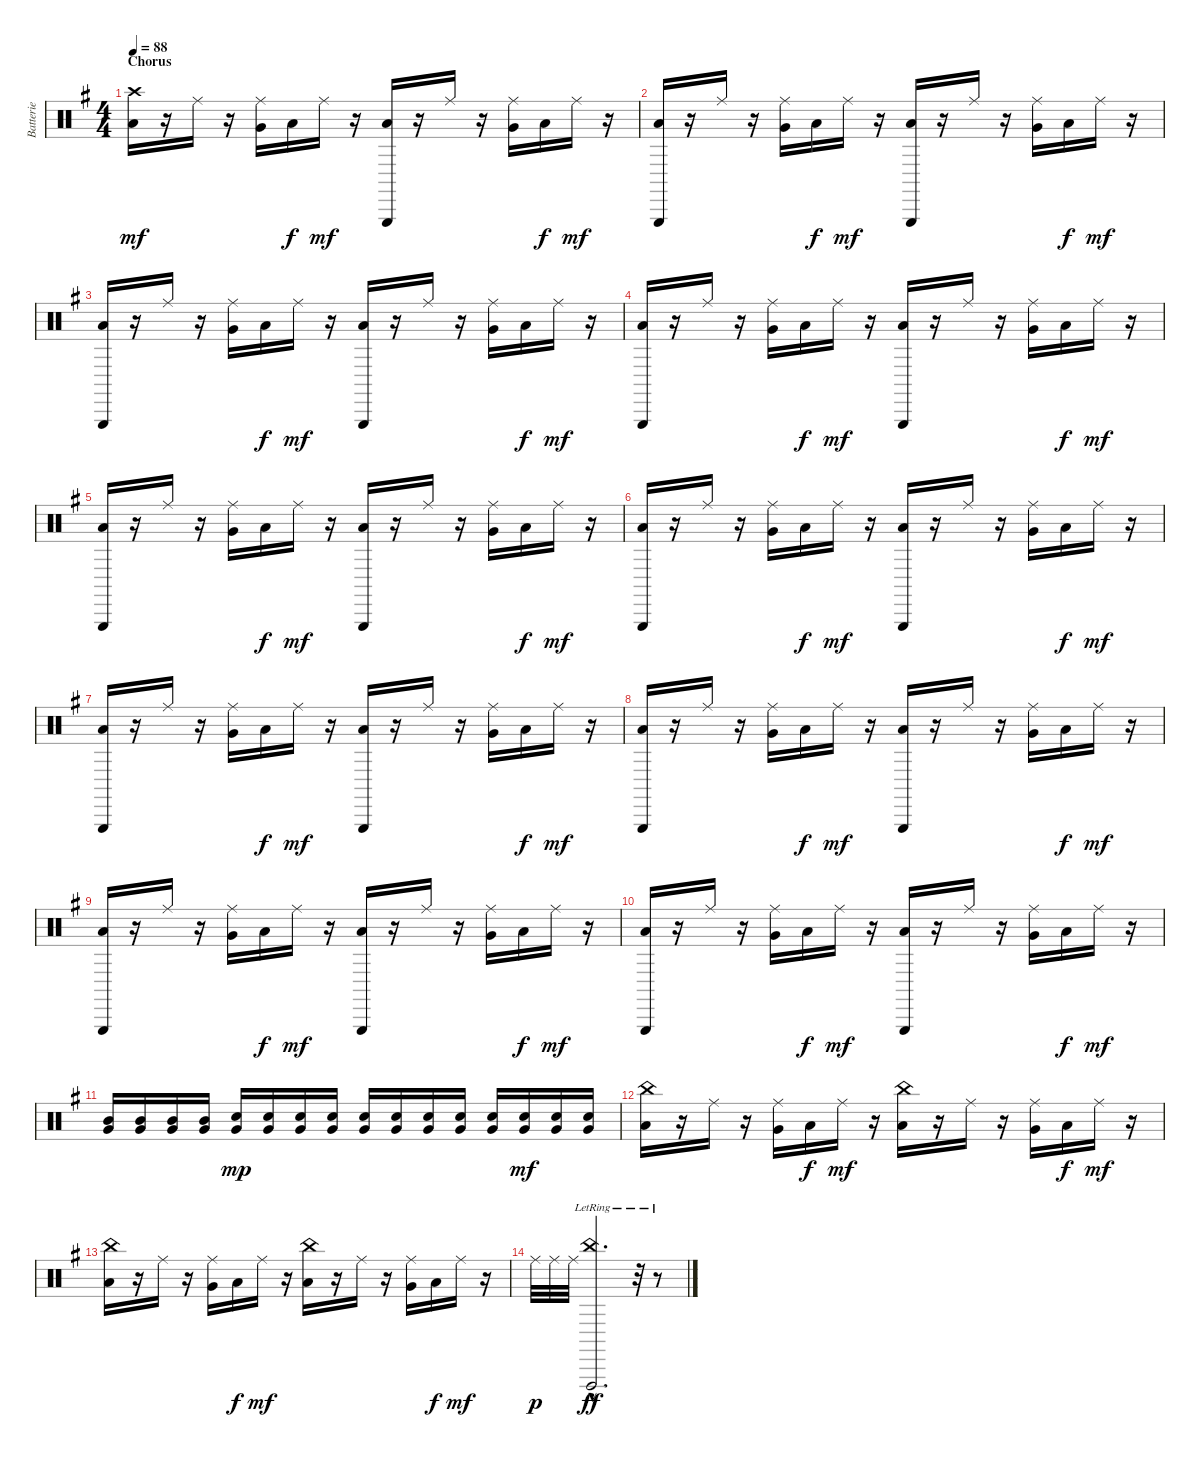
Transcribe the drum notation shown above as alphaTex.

\track ("Batterie" "Batterie") {instrument percussion}
\staff {score}
\articulation defaults
\ts (4 4)
\section ("" "Chorus")
\tempo 88
\clef neutral
\ks g
("Low Floor Tom (hit)" "Crash high (hit)").16{dy mf} r.16 "Ride (middle)".16 r.16 ("Very Low Tom (hit)" "Ride (middle)").16 "Low Floor Tom (hit)".16{dy f} "Ride (middle)".16{dy mf} r.16 ("Low Floor Tom (hit)" "Triangle (hit)").16 r.16 "Ride (middle)".16 r.16 ("Very Low Tom (hit)" "Ride (middle)").16 "Low Floor Tom (hit)".16{dy f} "Ride (middle)".16{dy mf} r.16 |
("Low Floor Tom (hit)" "Triangle (hit)").16 r.16 "Ride (middle)".16 r.16 ("Very Low Tom (hit)" "Ride (middle)").16 "Low Floor Tom (hit)".16{dy f} "Ride (middle)".16{dy mf} r.16 ("Low Floor Tom (hit)" "Triangle (hit)").16 r.16 "Ride (middle)".16 r.16 ("Very Low Tom (hit)" "Ride (middle)").16 "Low Floor Tom (hit)".16{dy f} "Ride (middle)".16{dy mf} r.16 |
("Low Floor Tom (hit)" "Triangle (hit)").16 r.16 "Ride (middle)".16 r.16 ("Very Low Tom (hit)" "Ride (middle)").16 "Low Floor Tom (hit)".16{dy f} "Ride (middle)".16{dy mf} r.16 ("Low Floor Tom (hit)" "Triangle (hit)").16 r.16 "Ride (middle)".16 r.16 ("Very Low Tom (hit)" "Ride (middle)").16 "Low Floor Tom (hit)".16{dy f} "Ride (middle)".16{dy mf} r.16 |
("Low Floor Tom (hit)" "Triangle (hit)").16 r.16 "Ride (middle)".16 r.16 ("Very Low Tom (hit)" "Ride (middle)").16 "Low Floor Tom (hit)".16{dy f} "Ride (middle)".16{dy mf} r.16 ("Low Floor Tom (hit)" "Triangle (hit)").16 r.16 "Ride (middle)".16 r.16 ("Very Low Tom (hit)" "Ride (middle)").16 "Low Floor Tom (hit)".16{dy f} "Ride (middle)".16{dy mf} r.16 |
("Low Floor Tom (hit)" "Triangle (hit)").16 r.16 "Ride (middle)".16 r.16 ("Very Low Tom (hit)" "Ride (middle)").16 "Low Floor Tom (hit)".16{dy f} "Ride (middle)".16{dy mf} r.16 ("Low Floor Tom (hit)" "Triangle (hit)").16 r.16 "Ride (middle)".16 r.16 ("Very Low Tom (hit)" "Ride (middle)").16 "Low Floor Tom (hit)".16{dy f} "Ride (middle)".16{dy mf} r.16 |
("Low Floor Tom (hit)" "Triangle (hit)").16 r.16 "Ride (middle)".16 r.16 ("Very Low Tom (hit)" "Ride (middle)").16 "Low Floor Tom (hit)".16{dy f} "Ride (middle)".16{dy mf} r.16 ("Low Floor Tom (hit)" "Triangle (hit)").16 r.16 "Ride (middle)".16 r.16 ("Very Low Tom (hit)" "Ride (middle)").16 "Low Floor Tom (hit)".16{dy f} "Ride (middle)".16{dy mf} r.16 |
("Low Floor Tom (hit)" "Triangle (hit)").16 r.16 "Ride (middle)".16 r.16 ("Very Low Tom (hit)" "Ride (middle)").16 "Low Floor Tom (hit)".16{dy f} "Ride (middle)".16{dy mf} r.16 ("Low Floor Tom (hit)" "Triangle (hit)").16 r.16 "Ride (middle)".16 r.16 ("Very Low Tom (hit)" "Ride (middle)").16 "Low Floor Tom (hit)".16{dy f} "Ride (middle)".16{dy mf} r.16 |
("Low Floor Tom (hit)" "Triangle (hit)").16 r.16 "Ride (middle)".16 r.16 ("Very Low Tom (hit)" "Ride (middle)").16 "Low Floor Tom (hit)".16{dy f} "Ride (middle)".16{dy mf} r.16 ("Low Floor Tom (hit)" "Triangle (hit)").16 r.16 "Ride (middle)".16 r.16 ("Very Low Tom (hit)" "Ride (middle)").16 "Low Floor Tom (hit)".16{dy f} "Ride (middle)".16{dy mf} r.16 |
("Low Floor Tom (hit)" "Triangle (hit)").16 r.16 "Ride (middle)".16 r.16 ("Very Low Tom (hit)" "Ride (middle)").16 "Low Floor Tom (hit)".16{dy f} "Ride (middle)".16{dy mf} r.16 ("Low Floor Tom (hit)" "Triangle (hit)").16 r.16 "Ride (middle)".16 r.16 ("Very Low Tom (hit)" "Ride (middle)").16 "Low Floor Tom (hit)".16{dy f} "Ride (middle)".16{dy mf} r.16 |
("Low Floor Tom (hit)" "Triangle (hit)").16 r.16 "Ride (middle)".16 r.16 ("Very Low Tom (hit)" "Ride (middle)").16 "Low Floor Tom (hit)".16{dy f} "Ride (middle)".16{dy mf} r.16 ("Low Floor Tom (hit)" "Triangle (hit)").16 r.16 "Ride (middle)".16 r.16 ("Very Low Tom (hit)" "Ride (middle)").16 "Low Floor Tom (hit)".16{dy f} "Ride (middle)".16{dy mf} r.16 |
("Very Low Tom (hit)" "Mid Tom (hit)").16 ("Very Low Tom (hit)" "Mid Tom (hit)").16 ("Very Low Tom (hit)" "Mid Tom (hit)").16 ("Very Low Tom (hit)" "Mid Tom (hit)").16 ("Very Low Tom (hit)" "Snare (hit) 2").16{dy mp} ("Very Low Tom (hit)" "Snare (hit) 2").16 ("Very Low Tom (hit)" "Snare (hit) 2").16 ("Very Low Tom (hit)" "Snare (hit) 2").16 ("Very Low Tom (hit)" "Snare (hit) 2").16 ("Very Low Tom (hit)" "Snare (hit) 2").16 ("Very Low Tom (hit)" "Snare (hit) 2").16 ("Very Low Tom (hit)" "Snare (hit) 2").16 ("Very Low Tom (hit)" "Snare (hit) 2").16 ("Very Low Tom (hit)" "Snare (hit) 2").16{dy mf} ("Very Low Tom (hit)" "Snare (hit) 2").16 ("Very Low Tom (hit)" "Snare (hit) 2").16 |
("Low Floor Tom (hit)" "China (hit)").16 r.16 "Ride (middle)".16 r.16 ("Very Low Tom (hit)" "Ride (middle)").16 "Low Floor Tom (hit)".16{dy f} "Ride (middle)".16{dy mf} r.16 ("Low Floor Tom (hit)" "China (hit)").16 r.16 "Ride (middle)".16 r.16 ("Very Low Tom (hit)" "Ride (middle)").16 "Low Floor Tom (hit)".16{dy f} "Ride (middle)".16{dy mf} r.16 |
("Low Floor Tom (hit)" "China (hit)").16 r.16 "Ride (middle)".16 r.16 ("Very Low Tom (hit)" "Ride (middle)").16 "Low Floor Tom (hit)".16{dy f} "Ride (middle)".16{dy mf} r.16 ("Low Floor Tom (hit)" "China (hit)").16 r.16 "Ride (middle)".16 r.16 ("Very Low Tom (hit)" "Ride (middle)").16 "Low Floor Tom (hit)".16{dy f} "Ride (middle)".16{dy mf} r.16 |
"Ride (middle)".32{dy p} "Ride (middle)".32 "Ride (middle)".32 ("Vibraslap (hit)"{hac} "China (hit)"{hac lr}).2{d dy ff} r.32 r.8
